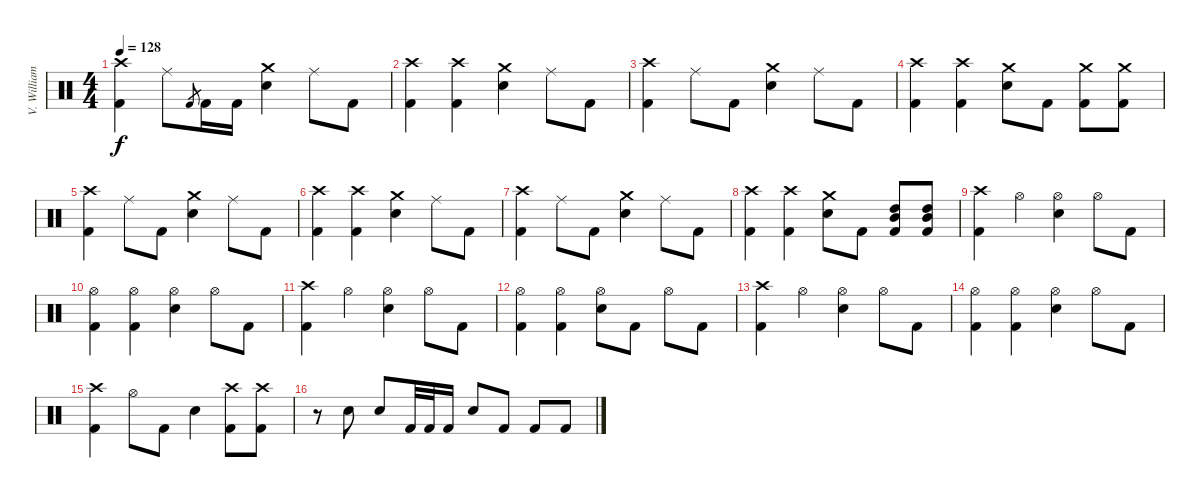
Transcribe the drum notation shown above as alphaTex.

\track ("V. Williams" "V. William") {instrument percussion}
\staff {score}
\articulation defaults
\ts (4 4)
\tempo 128
\clef neutral
\ks c
("Crash high (hit)" "Kick (hit) 2").4{dy f} "Ride (middle)".8 "Kick (hit) 2".8{gr} "Kick (hit) 2".16 "Kick (hit) 2".16 ("Crash medium (hit)" "Electric Snare (hit)").4 "Ride (middle)".8 "Kick (hit) 2".8 |
("Crash high (hit)" "Kick (hit) 2").4 ("Crash high (hit)" "Kick (hit) 2").4 ("Crash medium (hit)" "Electric Snare (hit)").4 "Ride (middle)".8 "Kick (hit) 2".8 |
("Crash high (hit)" "Kick (hit) 2").4 "Ride (middle)".8 "Kick (hit) 2".8 ("Crash medium (hit)" "Electric Snare (hit)").4 "Ride (middle)".8 "Kick (hit) 2".8 |
("Crash high (hit)" "Kick (hit) 2").4 ("Crash high (hit)" "Kick (hit) 2").4 ("Crash medium (hit)" "Electric Snare (hit)").8 "Kick (hit) 2".8 ("Crash medium (hit)" "Kick (hit) 2").8 ("Crash medium (hit)" "Kick (hit) 2").8 |
("Crash high (hit)" "Kick (hit) 2").4 "Ride (middle)".8 "Kick (hit) 2".8 ("Crash medium (hit)" "Electric Snare (hit)").4 "Ride (middle)".8 "Kick (hit) 2".8 |
("Crash high (hit)" "Kick (hit) 2").4 ("Crash high (hit)" "Kick (hit) 2").4 ("Crash medium (hit)" "Electric Snare (hit)").4 "Ride (middle)".8 "Kick (hit) 2".8 |
("Crash high (hit)" "Kick (hit) 2").4 "Ride (middle)".8 "Kick (hit) 2".8 ("Crash medium (hit)" "Electric Snare (hit)").4 "Ride (middle)".8 "Kick (hit) 2".8 |
("Crash high (hit)" "Kick (hit) 2").4 ("Crash high (hit)" "Kick (hit) 2").4 ("Crash medium (hit)" "Electric Snare (hit)").8 "Kick (hit) 2".8 ("High Tom (hit)" "Mid Tom (hit)" "Kick (hit) 2").8 ("High Tom (hit)" "Mid Tom (hit)" "Kick (hit) 2").8 |
\section ("" "")
("Crash high (hit)" "Kick (hit) 2").4 "Hi-Hat (open)".4 ("Hi-Hat (open)" "Electric Snare (hit)").4 "Hi-Hat (open)".8 "Kick (hit) 2".8 |
("Hi-Hat (open)" "Kick (hit) 2").4 ("Hi-Hat (open)" "Kick (hit) 2").4 ("Hi-Hat (open)" "Electric Snare (hit)").4 "Hi-Hat (open)".8 "Kick (hit) 2".8 |
("Crash high (hit)" "Kick (hit) 2").4 "Hi-Hat (open)".4 ("Hi-Hat (open)" "Electric Snare (hit)").4 "Hi-Hat (open)".8 "Kick (hit) 2".8 |
("Hi-Hat (open)" "Kick (hit) 2").4 ("Hi-Hat (open)" "Kick (hit) 2").4 ("Hi-Hat (open)" "Electric Snare (hit)").8 "Kick (hit) 2".8 "Hi-Hat (open)".8 "Kick (hit) 2".8 |
("Crash high (hit)" "Kick (hit) 2").4 "Hi-Hat (open)".4 ("Hi-Hat (open)" "Electric Snare (hit)").4 "Hi-Hat (open)".8 "Kick (hit) 2".8 |
("Hi-Hat (open)" "Kick (hit) 2").4 ("Hi-Hat (open)" "Kick (hit) 2").4 ("Hi-Hat (open)" "Electric Snare (hit)").4 "Hi-Hat (open)".8 "Kick (hit) 2".8 |
("Crash high (hit)" "Kick (hit) 2").4 "Hi-Hat (open)".8 "Kick (hit) 2".8 "Electric Snare (hit)".4 ("Crash high (hit)" "Kick (hit) 2").8 ("Crash high (hit)" "Kick (hit) 2").8 |
r.8 "Electric Snare (hit)".8 "Electric Snare (hit)".8 "Kick (hit) 2".32 "Kick (hit) 2".32 "Kick (hit) 2".16 "Electric Snare (hit)".8 "Kick (hit) 2".8 "Kick (hit) 2".8 "Kick (hit) 2".8
